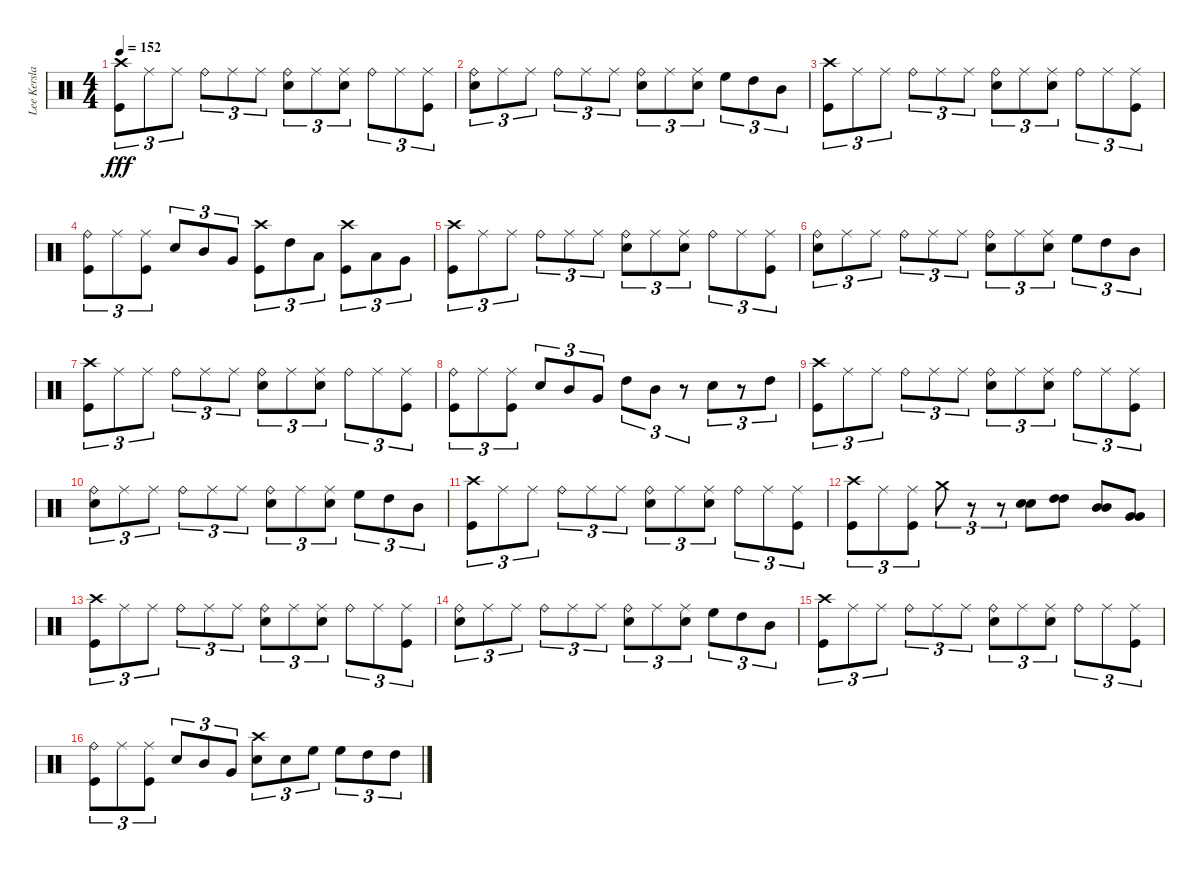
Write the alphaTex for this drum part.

\track ("Lee Kerslake" "Lee Kersla") {instrument percussion}
\staff {score}
\articulation defaults
\ts (4 4)
\tempo 152
\clef neutral
\ks c
("Kick (hit)" "Crash high (hit)").8{tu (3 2) dy fff} "Ride (middle)".8{tu (3 2)} "Ride (middle)".8{tu (3 2)} "Ride (bell)".8{tu (3 2)} "Ride (middle)".8{tu (3 2)} "Ride (middle)".8{tu (3 2)} ("Electric Snare (hit)" "Ride (bell)").8{tu (3 2)} "Ride (middle)".8{tu (3 2)} ("Ride (middle)" "Electric Snare (hit)").8{tu (3 2)} "Ride (bell)".8{tu (3 2)} "Ride (middle)".8{tu (3 2)} ("Ride (middle)" "Kick (hit)").8{tu (3 2)} |
("Snare (hit)" "Ride (bell)").8{tu (3 2)} "Ride (middle)".8{tu (3 2)} "Ride (middle)".8{tu (3 2)} "Ride (bell)".8{tu (3 2)} "Ride (middle)".8{tu (3 2)} "Ride (middle)".8{tu (3 2)} ("Electric Snare (hit)" "Ride (bell)").8{tu (3 2)} "Ride (middle)".8{tu (3 2)} ("Ride (middle)" "Electric Snare (hit)").8{tu (3 2)} "High Floor Tom (hit)".8{tu (3 2)} "High Tom (hit)".8{tu (3 2)} "Mid Tom (hit)".8{tu (3 2)} |
("Kick (hit)" "Crash high (hit)").8{tu (3 2)} "Ride (middle)".8{tu (3 2)} "Ride (middle)".8{tu (3 2)} "Ride (bell)".8{tu (3 2)} "Ride (middle)".8{tu (3 2)} "Ride (middle)".8{tu (3 2)} ("Electric Snare (hit)" "Ride (bell)").8{tu (3 2)} "Ride (middle)".8{tu (3 2)} ("Ride (middle)" "Electric Snare (hit)").8{tu (3 2)} "Ride (bell)".8{tu (3 2)} "Ride (middle)".8{tu (3 2)} ("Ride (middle)" "Kick (hit)").8{tu (3 2)} |
("Kick (hit)" "Ride (bell)").8{tu (3 2)} "Ride (middle)".8{tu (3 2)} ("Ride (middle)" "Kick (hit)").8{tu (3 2)} "Electric Snare (hit)".8{tu (3 2)} "Mid Tom (hit)".8{tu (3 2)} "Very Low Tom (hit)".8{tu (3 2)} ("Kick (hit)" "Crash high (hit)").8{tu (3 2)} "High Tom (hit)".8{tu (3 2)} "Low Tom (hit)".8{tu (3 2)} ("Crash high (hit)" "Kick (hit)").8{tu (3 2)} "Low Tom (hit)".8{tu (3 2)} "Very Low Tom (hit)".8{tu (3 2)} |
("Kick (hit)" "Crash high (hit)").8{tu (3 2)} "Ride (middle)".8{tu (3 2)} "Ride (middle)".8{tu (3 2)} "Ride (bell)".8{tu (3 2)} "Ride (middle)".8{tu (3 2)} "Ride (middle)".8{tu (3 2)} ("Electric Snare (hit)" "Ride (bell)").8{tu (3 2)} "Ride (middle)".8{tu (3 2)} ("Ride (middle)" "Electric Snare (hit)").8{tu (3 2)} "Ride (bell)".8{tu (3 2)} "Ride (middle)".8{tu (3 2)} ("Ride (middle)" "Kick (hit)").8{tu (3 2)} |
("Snare (hit)" "Ride (bell)").8{tu (3 2)} "Ride (middle)".8{tu (3 2)} "Ride (middle)".8{tu (3 2)} "Ride (bell)".8{tu (3 2)} "Ride (middle)".8{tu (3 2)} "Ride (middle)".8{tu (3 2)} ("Electric Snare (hit)" "Ride (bell)").8{tu (3 2)} "Ride (middle)".8{tu (3 2)} ("Ride (middle)" "Electric Snare (hit)").8{tu (3 2)} "High Floor Tom (hit)".8{tu (3 2)} "High Tom (hit)".8{tu (3 2)} "Mid Tom (hit)".8{tu (3 2)} |
("Kick (hit)" "Crash high (hit)").8{tu (3 2)} "Ride (middle)".8{tu (3 2)} "Ride (middle)".8{tu (3 2)} "Ride (bell)".8{tu (3 2)} "Ride (middle)".8{tu (3 2)} "Ride (middle)".8{tu (3 2)} ("Electric Snare (hit)" "Ride (bell)").8{tu (3 2)} "Ride (middle)".8{tu (3 2)} ("Ride (middle)" "Electric Snare (hit)").8{tu (3 2)} "Ride (bell)".8{tu (3 2)} "Ride (middle)".8{tu (3 2)} ("Ride (middle)" "Kick (hit)").8{tu (3 2)} |
("Kick (hit)" "Ride (bell)").8{tu (3 2)} "Ride (middle)".8{tu (3 2)} ("Ride (middle)" "Kick (hit)").8{tu (3 2)} "Electric Snare (hit)".8{tu (3 2)} "Mid Tom (hit)".8{tu (3 2)} "Very Low Tom (hit)".8{tu (3 2)} "High Tom (hit)".8{tu (3 2)} "Mid Tom (hit)".8{tu (3 2)} r.8{tu (3 2)} "Electric Snare (hit)".8{tu (3 2)} r.8{tu (3 2)} "High Tom (hit)".8{tu (3 2)} |
("Kick (hit)" "Crash high (hit)").8{tu (3 2)} "Ride (middle)".8{tu (3 2)} "Ride (middle)".8{tu (3 2)} "Ride (bell)".8{tu (3 2)} "Ride (middle)".8{tu (3 2)} "Ride (middle)".8{tu (3 2)} ("Electric Snare (hit)" "Ride (bell)").8{tu (3 2)} "Ride (middle)".8{tu (3 2)} ("Ride (middle)" "Electric Snare (hit)").8{tu (3 2)} "Ride (bell)".8{tu (3 2)} "Ride (middle)".8{tu (3 2)} ("Ride (middle)" "Kick (hit)").8{tu (3 2)} |
("Snare (hit)" "Ride (bell)").8{tu (3 2)} "Ride (middle)".8{tu (3 2)} "Ride (middle)".8{tu (3 2)} "Ride (bell)".8{tu (3 2)} "Ride (middle)".8{tu (3 2)} "Ride (middle)".8{tu (3 2)} ("Electric Snare (hit)" "Ride (bell)").8{tu (3 2)} "Ride (middle)".8{tu (3 2)} ("Ride (middle)" "Electric Snare (hit)").8{tu (3 2)} "High Floor Tom (hit)".8{tu (3 2)} "High Tom (hit)".8{tu (3 2)} "Mid Tom (hit)".8{tu (3 2)} |
("Kick (hit)" "Crash high (hit)").8{tu (3 2)} "Ride (middle)".8{tu (3 2)} "Ride (middle)".8{tu (3 2)} "Ride (bell)".8{tu (3 2)} "Ride (middle)".8{tu (3 2)} "Ride (middle)".8{tu (3 2)} ("Electric Snare (hit)" "Ride (bell)").8{tu (3 2)} "Ride (middle)".8{tu (3 2)} ("Ride (middle)" "Electric Snare (hit)").8{tu (3 2)} "Ride (bell)".8{tu (3 2)} "Ride (middle)".8{tu (3 2)} ("Ride (middle)" "Kick (hit)").8{tu (3 2)} |
("Kick (hit)" "Crash high (hit)").8{tu (3 2)} "Ride (middle)".8{tu (3 2)} ("Ride (middle)" "Kick (hit)").8{tu (3 2)} "Crash medium (hit)".8{tu (3 2)} r.8{tu (3 2)} r.8{tu (3 2)} ("Electric Snare (hit)" "Electric Snare (hit)").8{bd 120} ("High Tom (hit)" "High Tom (hit)").8{bd 120} ("Mid Tom (hit)" "Mid Tom (hit)").8{bd 120} ("Very Low Tom (hit)" "Very Low Tom (hit)").8{bd 120} |
("Kick (hit)" "Crash high (hit)").8{tu (3 2)} "Ride (middle)".8{tu (3 2)} "Ride (middle)".8{tu (3 2)} "Ride (bell)".8{tu (3 2)} "Ride (middle)".8{tu (3 2)} "Ride (middle)".8{tu (3 2)} ("Electric Snare (hit)" "Ride (bell)").8{tu (3 2)} "Ride (middle)".8{tu (3 2)} ("Ride (middle)" "Electric Snare (hit)").8{tu (3 2)} "Ride (bell)".8{tu (3 2)} "Ride (middle)".8{tu (3 2)} ("Ride (middle)" "Kick (hit)").8{tu (3 2)} |
("Snare (hit)" "Ride (bell)").8{tu (3 2)} "Ride (middle)".8{tu (3 2)} "Ride (middle)".8{tu (3 2)} "Ride (bell)".8{tu (3 2)} "Ride (middle)".8{tu (3 2)} "Ride (middle)".8{tu (3 2)} ("Electric Snare (hit)" "Ride (bell)").8{tu (3 2)} "Ride (middle)".8{tu (3 2)} ("Ride (middle)" "Electric Snare (hit)").8{tu (3 2)} "High Floor Tom (hit)".8{tu (3 2)} "High Tom (hit)".8{tu (3 2)} "Mid Tom (hit)".8{tu (3 2)} |
("Kick (hit)" "Crash high (hit)").8{tu (3 2)} "Ride (middle)".8{tu (3 2)} "Ride (middle)".8{tu (3 2)} "Ride (bell)".8{tu (3 2)} "Ride (middle)".8{tu (3 2)} "Ride (middle)".8{tu (3 2)} ("Electric Snare (hit)" "Ride (bell)").8{tu (3 2)} "Ride (middle)".8{tu (3 2)} ("Ride (middle)" "Electric Snare (hit)").8{tu (3 2)} "Ride (bell)".8{tu (3 2)} "Ride (middle)".8{tu (3 2)} ("Ride (middle)" "Kick (hit)").8{tu (3 2)} |
("Kick (hit)" "Ride (bell)").8{tu (3 2)} "Ride (middle)".8{tu (3 2)} ("Ride (middle)" "Kick (hit)").8{tu (3 2)} "Electric Snare (hit)".8{tu (3 2)} "Mid Tom (hit)".8{tu (3 2)} "Very Low Tom (hit)".8{tu (3 2)} ("Electric Snare (hit)" "Crash high (hit)").8{tu (3 2)} "Electric Snare (hit)".8{tu (3 2)} "High Floor Tom (hit)".8{tu (3 2)} "High Floor Tom (hit)".8{tu (3 2)} "High Tom (hit)".8{tu (3 2)} "High Tom (hit)".8{tu (3 2)}
